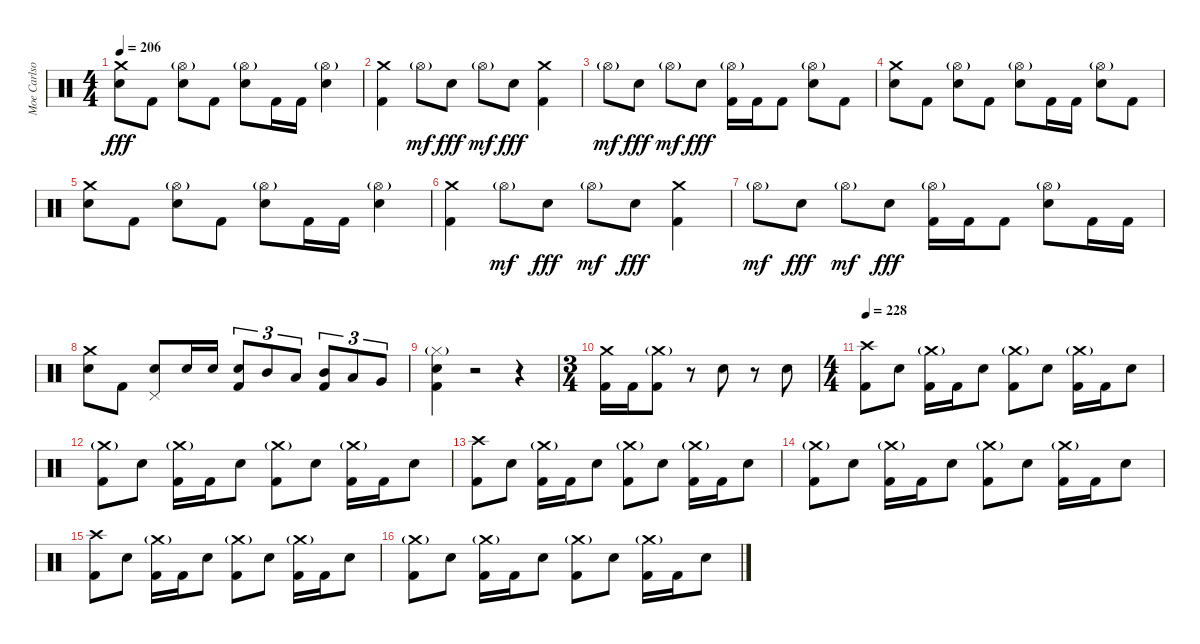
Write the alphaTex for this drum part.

\track ("Moe Carlson" "Moe Carlso") {instrument percussion}
\staff {score}
\articulation defaults
\ts (4 4)
\tempo 206
\clef neutral
\ks c
("Crash medium (hit)" "Electric Snare (hit)").8{dy fff} "Kick (hit) 2".8 ("Hi-Hat (open)"{g} "Electric Snare (hit)").8 "Kick (hit) 2".8 ("Hi-Hat (open)"{g} "Electric Snare (hit)").8 "Kick (hit) 2".16 "Kick (hit) 2".16 ("Hi-Hat (open)"{g} "Electric Snare (hit)").4 |
("Crash medium (hit)" "Kick (hit) 2").4 "Hi-Hat (open)"{g}.8{dy mf} "Electric Snare (hit)".8{dy fff} "Hi-Hat (open)"{g}.8{dy mf} "Electric Snare (hit)".8{dy fff} ("Crash medium (hit)" "Kick (hit) 2").4 |
"Hi-Hat (open)"{g}.8{dy mf} "Electric Snare (hit)".8{dy fff} "Hi-Hat (open)"{g}.8{dy mf} "Electric Snare (hit)".8{dy fff} ("Hi-Hat (open)"{g} "Kick (hit) 2").16 "Kick (hit) 2".16 "Kick (hit) 2".8 ("Hi-Hat (open)"{g} "Electric Snare (hit)").8 "Kick (hit) 2".8 |
("Crash medium (hit)" "Electric Snare (hit)").8 "Kick (hit) 2".8 ("Hi-Hat (open)"{g} "Electric Snare (hit)").8 "Kick (hit) 2".8 ("Hi-Hat (open)"{g} "Electric Snare (hit)").8 "Kick (hit) 2".16 "Kick (hit) 2".16 ("Hi-Hat (open)"{g} "Electric Snare (hit)").8 "Kick (hit) 2".8 |
("Crash medium (hit)" "Electric Snare (hit)").8 "Kick (hit) 2".8 ("Hi-Hat (open)"{g} "Electric Snare (hit)").8 "Kick (hit) 2".8 ("Hi-Hat (open)"{g} "Electric Snare (hit)").8 "Kick (hit) 2".16 "Kick (hit) 2".16 ("Hi-Hat (open)"{g} "Electric Snare (hit)").4 |
("Crash medium (hit)" "Kick (hit) 2").4 "Hi-Hat (open)"{g}.8{dy mf} "Electric Snare (hit)".8{dy fff} "Hi-Hat (open)"{g}.8{dy mf} "Electric Snare (hit)".8{dy fff} ("Crash medium (hit)" "Kick (hit) 2").4 |
"Hi-Hat (open)"{g}.8{dy mf} "Electric Snare (hit)".8{dy fff} "Hi-Hat (open)"{g}.8{dy mf} "Electric Snare (hit)".8{dy fff} ("Hi-Hat (open)"{g} "Kick (hit) 2").16 "Kick (hit) 2".16 "Kick (hit) 2".8 ("Hi-Hat (open)"{g} "Electric Snare (hit)").8 "Kick (hit) 2".16 "Kick (hit) 2".16 |
("Crash medium (hit)" "Electric Snare (hit)").8 "Kick (hit) 2".8 ("Pedal Hi-Hat (hit)" "Electric Snare (hit)").8 "Electric Snare (hit)".16 "Electric Snare (hit)".16 ("Electric Snare (hit)" "Kick (hit) 2").8{tu (3 2)} "Mid Tom (hit)".8{tu (3 2)} "Low Tom (hit)".8{tu (3 2)} ("Mid Tom (hit)" "Kick (hit) 2").8{tu (3 2)} "Low Tom (hit)".8{tu (3 2)} "Very Low Tom (hit)".8{tu (3 2)} |
("Hi-Hat (closed)"{g} "Electric Snare (hit)" "Kick (hit) 2").4 r.2 r.4 |
\ts (3 4)
("Crash medium (hit)" "Kick (hit) 2").16 "Kick (hit) 2".16 ("Crash medium (hit)"{g} "Kick (hit) 2").8 r.8 "Electric Snare (hit)".8 r.8 "Electric Snare (hit)".8 |
\ts (4 4)
\tempo 228
("Crash high (hit)" "Kick (hit) 2").8 "Electric Snare (hit)".8 ("Crash medium (hit)"{g} "Kick (hit) 2").16 "Kick (hit) 2".16 "Electric Snare (hit)".8 ("Crash medium (hit)"{g} "Kick (hit) 2").8 "Electric Snare (hit)".8 ("Crash medium (hit)"{g} "Kick (hit) 2").16 "Kick (hit) 2".16 "Electric Snare (hit)".8 |
("Crash medium (hit)"{g} "Kick (hit) 2").8 "Electric Snare (hit)".8 ("Crash medium (hit)"{g} "Kick (hit) 2").16 "Kick (hit) 2".16 "Electric Snare (hit)".8 ("Crash medium (hit)"{g} "Kick (hit) 2").8 "Electric Snare (hit)".8 ("Crash medium (hit)"{g} "Kick (hit) 2").16 "Kick (hit) 2".16 "Electric Snare (hit)".8 |
("Crash high (hit)" "Kick (hit) 2").8 "Electric Snare (hit)".8 ("Crash medium (hit)"{g} "Kick (hit) 2").16 "Kick (hit) 2".16 "Electric Snare (hit)".8 ("Crash medium (hit)"{g} "Kick (hit) 2").8 "Electric Snare (hit)".8 ("Crash medium (hit)"{g} "Kick (hit) 2").16 "Kick (hit) 2".16 "Electric Snare (hit)".8 |
("Crash medium (hit)"{g} "Kick (hit) 2").8 "Electric Snare (hit)".8 ("Crash medium (hit)"{g} "Kick (hit) 2").16 "Kick (hit) 2".16 "Electric Snare (hit)".8 ("Crash medium (hit)"{g} "Kick (hit) 2").8 "Electric Snare (hit)".8 ("Crash medium (hit)"{g} "Kick (hit) 2").16 "Kick (hit) 2".16 "Electric Snare (hit)".8 |
("Crash high (hit)" "Kick (hit) 2").8 "Electric Snare (hit)".8 ("Crash medium (hit)"{g} "Kick (hit) 2").16 "Kick (hit) 2".16 "Electric Snare (hit)".8 ("Crash medium (hit)"{g} "Kick (hit) 2").8 "Electric Snare (hit)".8 ("Crash medium (hit)"{g} "Kick (hit) 2").16 "Kick (hit) 2".16 "Electric Snare (hit)".8 |
("Crash medium (hit)"{g} "Kick (hit) 2").8 "Electric Snare (hit)".8 ("Crash medium (hit)"{g} "Kick (hit) 2").16 "Kick (hit) 2".16 "Electric Snare (hit)".8 ("Crash medium (hit)"{g} "Kick (hit) 2").8 "Electric Snare (hit)".8 ("Crash medium (hit)"{g} "Kick (hit) 2").16 "Kick (hit) 2".16 "Electric Snare (hit)".8
